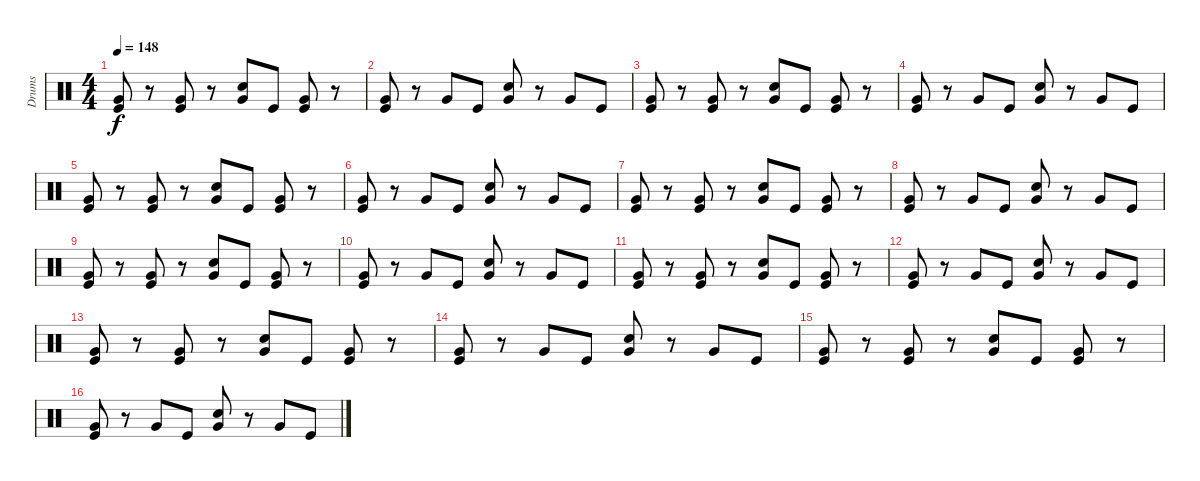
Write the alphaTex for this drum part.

\track ("Drums" "Drums") {instrument percussion}
\staff {score}
\articulation defaults
\ts (4 4)
\tempo 148
\clef neutral
\ks c
("Very Low Tom (hit)" "Kick (hit)").8{dy f} r.8 ("Very Low Tom (hit)" "Kick (hit)").8 r.8 ("Very Low Tom (hit)" "Electric Snare (hit)").8 "Kick (hit)".8 ("Very Low Tom (hit)" "Kick (hit)").8 r.8 |
("Very Low Tom (hit)" "Kick (hit)").8 r.8 "Very Low Tom (hit)".8 "Kick (hit)".8 ("Very Low Tom (hit)" "Electric Snare (hit)").8 r.8 "Very Low Tom (hit)".8 "Kick (hit)".8 |
("Very Low Tom (hit)" "Kick (hit)").8 r.8 ("Very Low Tom (hit)" "Kick (hit)").8 r.8 ("Very Low Tom (hit)" "Electric Snare (hit)").8 "Kick (hit)".8 ("Very Low Tom (hit)" "Kick (hit)").8 r.8 |
("Very Low Tom (hit)" "Kick (hit)").8 r.8 "Very Low Tom (hit)".8 "Kick (hit)".8 ("Very Low Tom (hit)" "Electric Snare (hit)").8 r.8 "Very Low Tom (hit)".8 "Kick (hit)".8 |
("Very Low Tom (hit)" "Kick (hit)").8 r.8 ("Very Low Tom (hit)" "Kick (hit)").8 r.8 ("Very Low Tom (hit)" "Electric Snare (hit)").8 "Kick (hit)".8 ("Very Low Tom (hit)" "Kick (hit)").8 r.8 |
("Very Low Tom (hit)" "Kick (hit)").8 r.8 "Very Low Tom (hit)".8 "Kick (hit)".8 ("Very Low Tom (hit)" "Electric Snare (hit)").8 r.8 "Very Low Tom (hit)".8 "Kick (hit)".8 |
("Very Low Tom (hit)" "Kick (hit)").8 r.8 ("Very Low Tom (hit)" "Kick (hit)").8 r.8 ("Very Low Tom (hit)" "Electric Snare (hit)").8 "Kick (hit)".8 ("Very Low Tom (hit)" "Kick (hit)").8 r.8 |
("Very Low Tom (hit)" "Kick (hit)").8 r.8 "Very Low Tom (hit)".8 "Kick (hit)".8 ("Very Low Tom (hit)" "Electric Snare (hit)").8 r.8 "Very Low Tom (hit)".8 "Kick (hit)".8 |
("Very Low Tom (hit)" "Kick (hit)").8 r.8 ("Very Low Tom (hit)" "Kick (hit)").8 r.8 ("Very Low Tom (hit)" "Electric Snare (hit)").8 "Kick (hit)".8 ("Very Low Tom (hit)" "Kick (hit)").8 r.8 |
("Very Low Tom (hit)" "Kick (hit)").8 r.8 "Very Low Tom (hit)".8 "Kick (hit)".8 ("Very Low Tom (hit)" "Electric Snare (hit)").8 r.8 "Very Low Tom (hit)".8 "Kick (hit)".8 |
("Very Low Tom (hit)" "Kick (hit)").8 r.8 ("Very Low Tom (hit)" "Kick (hit)").8 r.8 ("Very Low Tom (hit)" "Electric Snare (hit)").8 "Kick (hit)".8 ("Very Low Tom (hit)" "Kick (hit)").8 r.8 |
("Very Low Tom (hit)" "Kick (hit)").8 r.8 "Very Low Tom (hit)".8 "Kick (hit)".8 ("Very Low Tom (hit)" "Electric Snare (hit)").8 r.8 "Very Low Tom (hit)".8 "Kick (hit)".8 |
("Very Low Tom (hit)" "Kick (hit)").8 r.8 ("Very Low Tom (hit)" "Kick (hit)").8 r.8 ("Very Low Tom (hit)" "Electric Snare (hit)").8 "Kick (hit)".8 ("Very Low Tom (hit)" "Kick (hit)").8 r.8 |
("Very Low Tom (hit)" "Kick (hit)").8 r.8 "Very Low Tom (hit)".8 "Kick (hit)".8 ("Very Low Tom (hit)" "Electric Snare (hit)").8 r.8 "Very Low Tom (hit)".8 "Kick (hit)".8 |
("Very Low Tom (hit)" "Kick (hit)").8 r.8 ("Very Low Tom (hit)" "Kick (hit)").8 r.8 ("Very Low Tom (hit)" "Electric Snare (hit)").8 "Kick (hit)".8 ("Very Low Tom (hit)" "Kick (hit)").8 r.8 |
("Very Low Tom (hit)" "Kick (hit)").8 r.8 "Very Low Tom (hit)".8 "Kick (hit)".8 ("Very Low Tom (hit)" "Electric Snare (hit)").8 r.8 "Very Low Tom (hit)".8 "Kick (hit)".8
